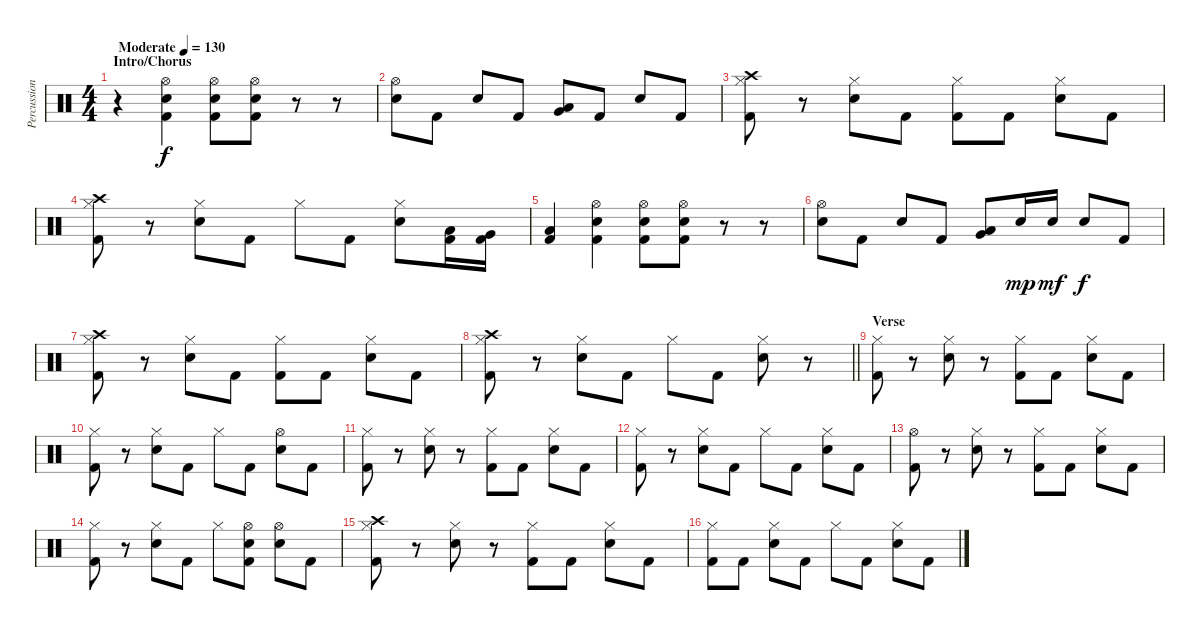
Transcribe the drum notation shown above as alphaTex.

\track ("Percussion" "Percussion") {instrument percussion}
\staff {score}
\articulation defaults
\ts (4 4)
\section ("" "Intro/Chorus")
\tempo (130 "Moderate")
\clef neutral
\ks c
r.4{dy f} ("Hi-Hat (open)" "Snare (hit) 2" "Kick (hit) 2").4 ("Hi-Hat (open)" "Snare (hit) 2" "Kick (hit) 2").8 ("Hi-Hat (open)" "Snare (hit) 2" "Kick (hit) 2").8 r.8 r.8 |
("Hi-Hat (open)" "Snare (hit) 2").8 "Kick (hit) 2".8 "Snare (hit) 2".8 "Kick (hit) 2".8 ("Very Low Tom (hit)" "Low Floor Tom (hit)").8 "Kick (hit) 2".8 "Snare (hit) 2".8 "Kick (hit) 2".8 |
("Crash high (hit)" "Hi-Hat (closed)" "Kick (hit) 2").8 r.8 ("Hi-Hat (closed)" "Snare (hit) 2").8 "Kick (hit) 2".8 ("Hi-Hat (closed)" "Kick (hit) 2").8 "Kick (hit) 2".8 ("Hi-Hat (closed)" "Snare (hit) 2").8 "Kick (hit) 2".8 |
("Crash high (hit)" "Hi-Hat (closed)" "Kick (hit) 2").8 r.8 ("Hi-Hat (closed)" "Snare (hit) 2").8 "Kick (hit) 2".8 "Hi-Hat (closed)".8 "Kick (hit) 2".8 ("Hi-Hat (closed)" "Snare (hit) 2").8 ("Low Tom (hit)" "Kick (hit) 2").16 ("Very Low Tom (hit)" "Kick (hit) 2").16 |
("Low Floor Tom (hit)" "Kick (hit) 2").4 ("Hi-Hat (open)" "Snare (hit) 2" "Kick (hit) 2").4 ("Hi-Hat (open)" "Snare (hit) 2" "Kick (hit) 2").8 ("Hi-Hat (open)" "Snare (hit) 2" "Kick (hit) 2").8 r.8 r.8 |
("Hi-Hat (open)" "Snare (hit) 2").8 "Kick (hit) 2".8 "Snare (hit) 2".8 "Kick (hit) 2".8 ("Very Low Tom (hit)" "Low Floor Tom (hit)").8 "Snare (hit) 2".16{dy mp} "Snare (hit) 2".16{dy mf} "Snare (hit) 2".8{dy f} "Kick (hit) 2".8 |
("Crash high (hit)" "Hi-Hat (closed)" "Kick (hit) 2").8 r.8 ("Hi-Hat (closed)" "Snare (hit) 2").8 "Kick (hit) 2".8 ("Hi-Hat (closed)" "Kick (hit) 2").8 "Kick (hit) 2".8 ("Hi-Hat (closed)" "Snare (hit) 2").8 "Kick (hit) 2".8 |
\barLineRight lightlight
("Crash high (hit)" "Hi-Hat (closed)" "Kick (hit) 2").8 r.8 ("Hi-Hat (closed)" "Snare (hit) 2").8 "Kick (hit) 2".8 "Hi-Hat (closed)".8 "Kick (hit) 2".8 ("Hi-Hat (closed)" "Snare (hit) 2").8 r.8 |
\section ("" "Verse")
("Hi-Hat (closed)" "Kick (hit) 2").8 r.8 ("Hi-Hat (closed)" "Snare (hit) 2").8 r.8 ("Hi-Hat (closed)" "Kick (hit) 2").8 "Kick (hit) 2".8 ("Hi-Hat (closed)" "Snare (hit) 2").8 "Kick (hit) 2".8 |
("Hi-Hat (closed)" "Kick (hit) 2").8 r.8 ("Hi-Hat (closed)" "Snare (hit) 2").8 "Kick (hit) 2".8 "Hi-Hat (closed)".8 "Kick (hit) 2".8 ("Hi-Hat (open)" "Snare (hit) 2").8 "Kick (hit) 2".8 |
("Hi-Hat (closed)" "Kick (hit) 2").8 r.8 ("Hi-Hat (closed)" "Snare (hit) 2").8 r.8 ("Hi-Hat (closed)" "Kick (hit) 2").8 "Kick (hit) 2".8 ("Hi-Hat (closed)" "Snare (hit) 2").8 "Kick (hit) 2".8 |
("Hi-Hat (closed)" "Kick (hit) 2").8 r.8 ("Hi-Hat (closed)" "Snare (hit) 2").8 "Kick (hit) 2".8 "Hi-Hat (closed)".8 "Kick (hit) 2".8 ("Hi-Hat (closed)" "Snare (hit) 2").8 "Kick (hit) 2".8 |
("Hi-Hat (open)" "Kick (hit) 2").8 r.8 ("Hi-Hat (closed)" "Snare (hit) 2").8 r.8 ("Hi-Hat (closed)" "Kick (hit) 2").8 "Kick (hit) 2".8 ("Hi-Hat (closed)" "Snare (hit) 2").8 "Kick (hit) 2".8 |
("Hi-Hat (closed)" "Kick (hit) 2").8 r.8 ("Hi-Hat (closed)" "Snare (hit) 2").8 "Kick (hit) 2".8 "Hi-Hat (closed)".8 ("Hi-Hat (open)" "Snare (hit) 2" "Kick (hit) 2").8 ("Hi-Hat (open)" "Snare (hit) 2").8 "Kick (hit) 2".8 |
("Crash high (hit)" "Hi-Hat (closed)" "Kick (hit) 2").8 r.8 ("Hi-Hat (closed)" "Snare (hit) 2").8 r.8 ("Hi-Hat (closed)" "Kick (hit) 2").8 "Kick (hit) 2".8 ("Hi-Hat (closed)" "Snare (hit) 2").8 "Kick (hit) 2".8 |
("Hi-Hat (closed)" "Kick (hit) 2").8 "Kick (hit) 2".8 ("Hi-Hat (closed)" "Snare (hit) 2").8 "Kick (hit) 2".8 "Hi-Hat (closed)".8 "Kick (hit) 2".8 ("Hi-Hat (closed)" "Snare (hit) 2").8 "Kick (hit) 2".8
